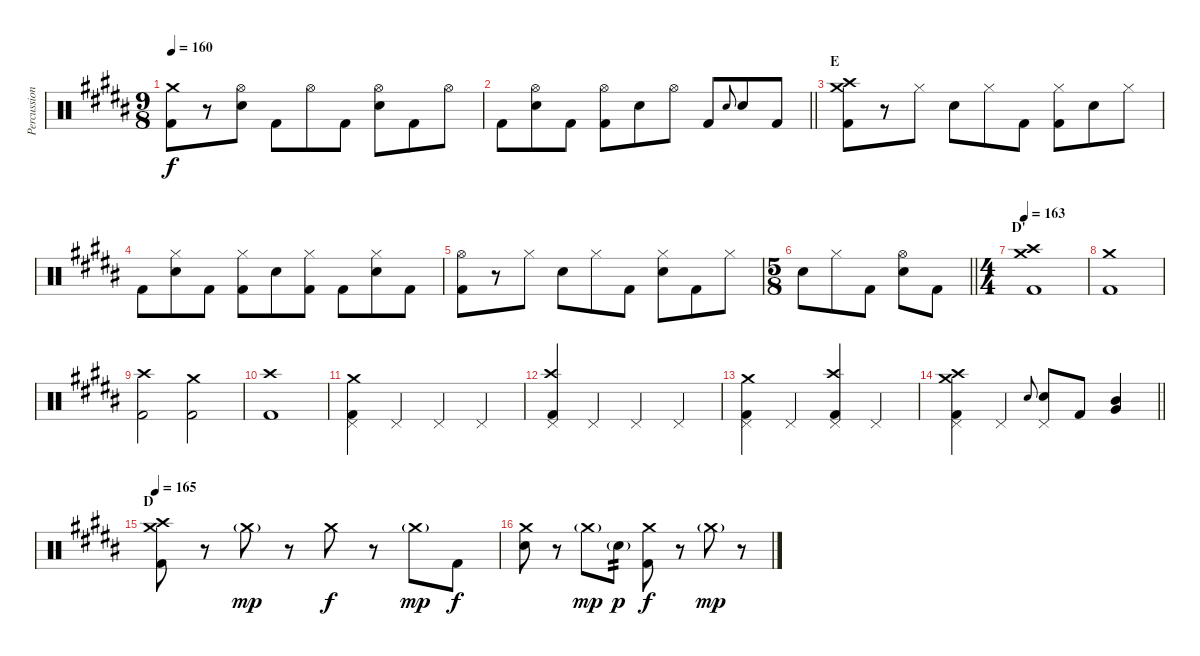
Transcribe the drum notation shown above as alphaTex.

\track ("Percussion" "Percussion") {instrument percussion}
\staff {score}
\articulation defaults
\ts (9 8)
\tempo 160
\clef neutral
\ks g#minor
("Crash medium (hit)" "Kick (hit) 2").8{dy f} r.8 ("Hi-Hat (open)" "Snare (hit) 2").8 "Kick (hit) 2".8 "Hi-Hat (open)".8 "Kick (hit) 2".8 ("Hi-Hat (open)" "Snare (hit) 2").8 "Kick (hit) 2".8 "Hi-Hat (open)".8 |
\barLineRight lightlight "Kick (hit) 2".8
("Hi-Hat (open)" "Snare (hit) 2").8 "Kick (hit) 2".8 ("Hi-Hat (open)" "Kick (hit) 2").8 "Snare (hit) 2".8 "Hi-Hat (open)".8 "Kick (hit) 2".8 "Snare (hit) 2".8{gr onbeat} "Snare (hit) 2".8 "Kick (hit) 2".8 |
\section ("" "E")
("Crash medium (hit)" "Crash high (hit)" "Kick (hit) 2").8 r.8 "Hi-Hat (closed)".8 "Snare (hit) 2".8 "Hi-Hat (closed)".8 "Kick (hit) 2".8 ("Hi-Hat (closed)" "Kick (hit) 2").8 "Snare (hit) 2".8 "Hi-Hat (closed)".8 |
"Kick (hit) 2".8 ("Hi-Hat (closed)" "Snare (hit) 2").8 "Kick (hit) 2".8 ("Hi-Hat (closed)" "Kick (hit) 2").8 "Snare (hit) 2".8 ("Hi-Hat (closed)" "Kick (hit) 2").8 "Kick (hit) 2".8 ("Hi-Hat (closed)" "Snare (hit) 2").8 "Kick (hit) 2".8 |
("Hi-Hat (open)" "Kick (hit) 2").8 r.8 "Hi-Hat (closed)".8 "Snare (hit) 2".8 "Hi-Hat (closed)".8 "Kick (hit) 2".8 ("Hi-Hat (closed)" "Snare (hit) 2").8 "Kick (hit) 2".8 "Hi-Hat (closed)".8 |
\ts (5 8)
\barLineRight lightlight "Snare (hit) 2".8 "Hi-Hat (closed)".8 "Kick (hit) 2".8
("Hi-Hat (open)" "Snare (hit) 2").8 "Kick (hit) 2".8 |
\ts (4 4)
\section ("" "D'")
\tempo 163
("Crash medium (hit)" "Crash high (hit)" "Kick (hit) 2").1 |
("Crash medium (hit)" "Kick (hit) 2").1 |
("Crash high (hit)" "Kick (hit) 2").2 ("Crash medium (hit)" "Kick (hit) 2").2 |
("Crash high (hit)" "Kick (hit) 2").1 |
("Crash medium (hit)" "Pedal Hi-Hat (hit)" "Kick (hit) 2").4 "Pedal Hi-Hat (hit)".4 "Pedal Hi-Hat (hit)".4 "Pedal Hi-Hat (hit)".4 |
("Crash high (hit)" "Pedal Hi-Hat (hit)" "Kick (hit) 2").4 "Pedal Hi-Hat (hit)".4 "Pedal Hi-Hat (hit)".4 "Pedal Hi-Hat (hit)".4 |
("Crash medium (hit)" "Pedal Hi-Hat (hit)" "Kick (hit) 2").4 "Pedal Hi-Hat (hit)".4 ("Crash high (hit)" "Pedal Hi-Hat (hit)" "Kick (hit) 2").4 "Pedal Hi-Hat (hit)".4 |
\barLineRight lightlight
("Crash medium (hit)" "Crash high (hit)" "Pedal Hi-Hat (hit)" "Kick (hit) 2").4 "Pedal Hi-Hat (hit)".4 "Snare (hit) 2".8{gr onbeat} ("Pedal Hi-Hat (hit)" "Snare (hit) 2").8 "Kick (hit) 2".8 ("Mid Tom (hit)" "Very Low Tom (hit)").4{bu 60} |
\section ("" "D")
\tempo 165
("Crash medium (hit)" "Crash high (hit)" "Kick (hit) 2").8 r.8 "Crash medium (hit)"{g}.8{dy mp} r.8 "Crash medium (hit)".8{dy f} r.8 "Crash medium (hit)"{g}.8{dy mp} "Kick (hit) 2".8{dy f} |
("Crash medium (hit)" "Snare (hit) 2").8 r.8 "Crash medium (hit)"{g}.8{dy mp} "Snare (hit) 2"{g}.8{tp 2 dy p} ("Crash medium (hit)" "Kick (hit) 2").8{dy f} r.8 "Crash medium (hit)"{g}.8{dy mp} r.8
